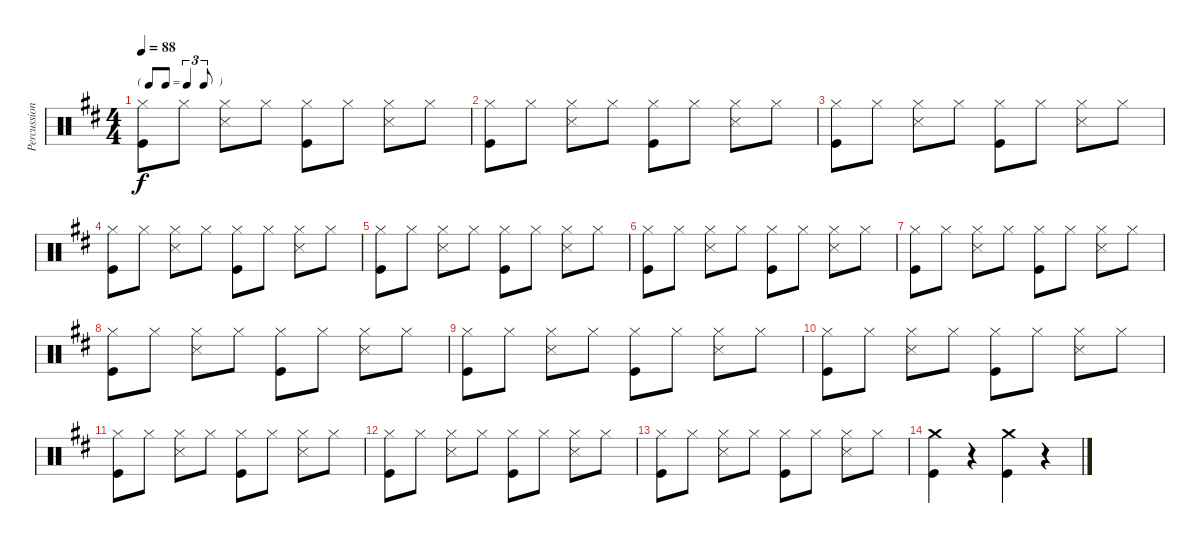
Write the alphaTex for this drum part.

\track ("Percussion" "Percussion") {instrument percussion}
\staff {score}
\articulation defaults
\ts (4 4)
\tf triplet8th
\tempo 88
\clef neutral
\ks d
("Hi-Hat (closed)" "Kick (hit)").8{dy f} "Hi-Hat (closed)".8 ("Hi-Hat (closed)" "Snare (side stick) 3").8 "Hi-Hat (closed)".8 ("Hi-Hat (closed)" "Kick (hit)").8 "Hi-Hat (closed)".8 ("Hi-Hat (closed)" "Snare (side stick) 3").8 "Hi-Hat (closed)".8 |
("Hi-Hat (closed)" "Kick (hit)").8 "Hi-Hat (closed)".8 ("Hi-Hat (closed)" "Snare (side stick) 3").8 "Hi-Hat (closed)".8 ("Hi-Hat (closed)" "Kick (hit)").8 "Hi-Hat (closed)".8 ("Hi-Hat (closed)" "Snare (side stick) 3").8 "Hi-Hat (closed)".8 |
("Hi-Hat (closed)" "Kick (hit)").8 "Hi-Hat (closed)".8 ("Hi-Hat (closed)" "Snare (side stick) 3").8 "Hi-Hat (closed)".8 ("Hi-Hat (closed)" "Kick (hit)").8 "Hi-Hat (closed)".8 ("Hi-Hat (closed)" "Snare (side stick) 3").8 "Hi-Hat (closed)".8 |
("Hi-Hat (closed)" "Kick (hit)").8 "Hi-Hat (closed)".8 ("Hi-Hat (closed)" "Snare (side stick) 3").8 "Hi-Hat (closed)".8 ("Hi-Hat (closed)" "Kick (hit)").8 "Hi-Hat (closed)".8 ("Hi-Hat (closed)" "Snare (side stick) 3").8 "Hi-Hat (closed)".8 |
("Hi-Hat (closed)" "Kick (hit)").8 "Hi-Hat (closed)".8 ("Hi-Hat (closed)" "Snare (side stick) 3").8 "Hi-Hat (closed)".8 ("Hi-Hat (closed)" "Kick (hit)").8 "Hi-Hat (closed)".8 ("Hi-Hat (closed)" "Snare (side stick) 3").8 "Hi-Hat (closed)".8 |
("Hi-Hat (closed)" "Kick (hit)").8 "Hi-Hat (closed)".8 ("Hi-Hat (closed)" "Snare (side stick) 3").8 "Hi-Hat (closed)".8 ("Hi-Hat (closed)" "Kick (hit)").8 "Hi-Hat (closed)".8 ("Hi-Hat (closed)" "Snare (side stick) 3").8 "Hi-Hat (closed)".8 |
("Hi-Hat (closed)" "Kick (hit)").8 "Hi-Hat (closed)".8 ("Hi-Hat (closed)" "Snare (side stick) 3").8 "Hi-Hat (closed)".8 ("Hi-Hat (closed)" "Kick (hit)").8 "Hi-Hat (closed)".8 ("Hi-Hat (closed)" "Snare (side stick) 3").8 "Hi-Hat (closed)".8 |
("Hi-Hat (closed)" "Kick (hit)").8 "Hi-Hat (closed)".8 ("Hi-Hat (closed)" "Snare (side stick) 3").8 "Hi-Hat (closed)".8 ("Hi-Hat (closed)" "Kick (hit)").8 "Hi-Hat (closed)".8 ("Hi-Hat (closed)" "Snare (side stick) 3").8 "Hi-Hat (closed)".8 |
("Hi-Hat (closed)" "Kick (hit)").8 "Hi-Hat (closed)".8 ("Hi-Hat (closed)" "Snare (side stick) 3").8 "Hi-Hat (closed)".8 ("Hi-Hat (closed)" "Kick (hit)").8 "Hi-Hat (closed)".8 ("Hi-Hat (closed)" "Snare (side stick) 3").8 "Hi-Hat (closed)".8 |
("Hi-Hat (closed)" "Kick (hit)").8 "Hi-Hat (closed)".8 ("Hi-Hat (closed)" "Snare (side stick) 3").8 "Hi-Hat (closed)".8 ("Hi-Hat (closed)" "Kick (hit)").8 "Hi-Hat (closed)".8 ("Hi-Hat (closed)" "Snare (side stick) 3").8 "Hi-Hat (closed)".8 |
("Hi-Hat (closed)" "Kick (hit)").8 "Hi-Hat (closed)".8 ("Hi-Hat (closed)" "Snare (side stick) 3").8 "Hi-Hat (closed)".8 ("Hi-Hat (closed)" "Kick (hit)").8 "Hi-Hat (closed)".8 ("Hi-Hat (closed)" "Snare (side stick) 3").8 "Hi-Hat (closed)".8 |
("Hi-Hat (closed)" "Kick (hit)").8 "Hi-Hat (closed)".8 ("Hi-Hat (closed)" "Snare (side stick) 3").8 "Hi-Hat (closed)".8 ("Hi-Hat (closed)" "Kick (hit)").8 "Hi-Hat (closed)".8 ("Hi-Hat (closed)" "Snare (side stick) 3").8 "Hi-Hat (closed)".8 |
("Hi-Hat (closed)" "Kick (hit)").8 "Hi-Hat (closed)".8 ("Hi-Hat (closed)" "Snare (side stick) 3").8 "Hi-Hat (closed)".8 ("Hi-Hat (closed)" "Kick (hit)").8 "Hi-Hat (closed)".8 ("Hi-Hat (closed)" "Snare (side stick) 3").8 "Hi-Hat (closed)".8 |
("Crash medium (hit)" "Kick (hit)").4 r.4 ("Crash medium (hit)" "Kick (hit)").4 r.4
